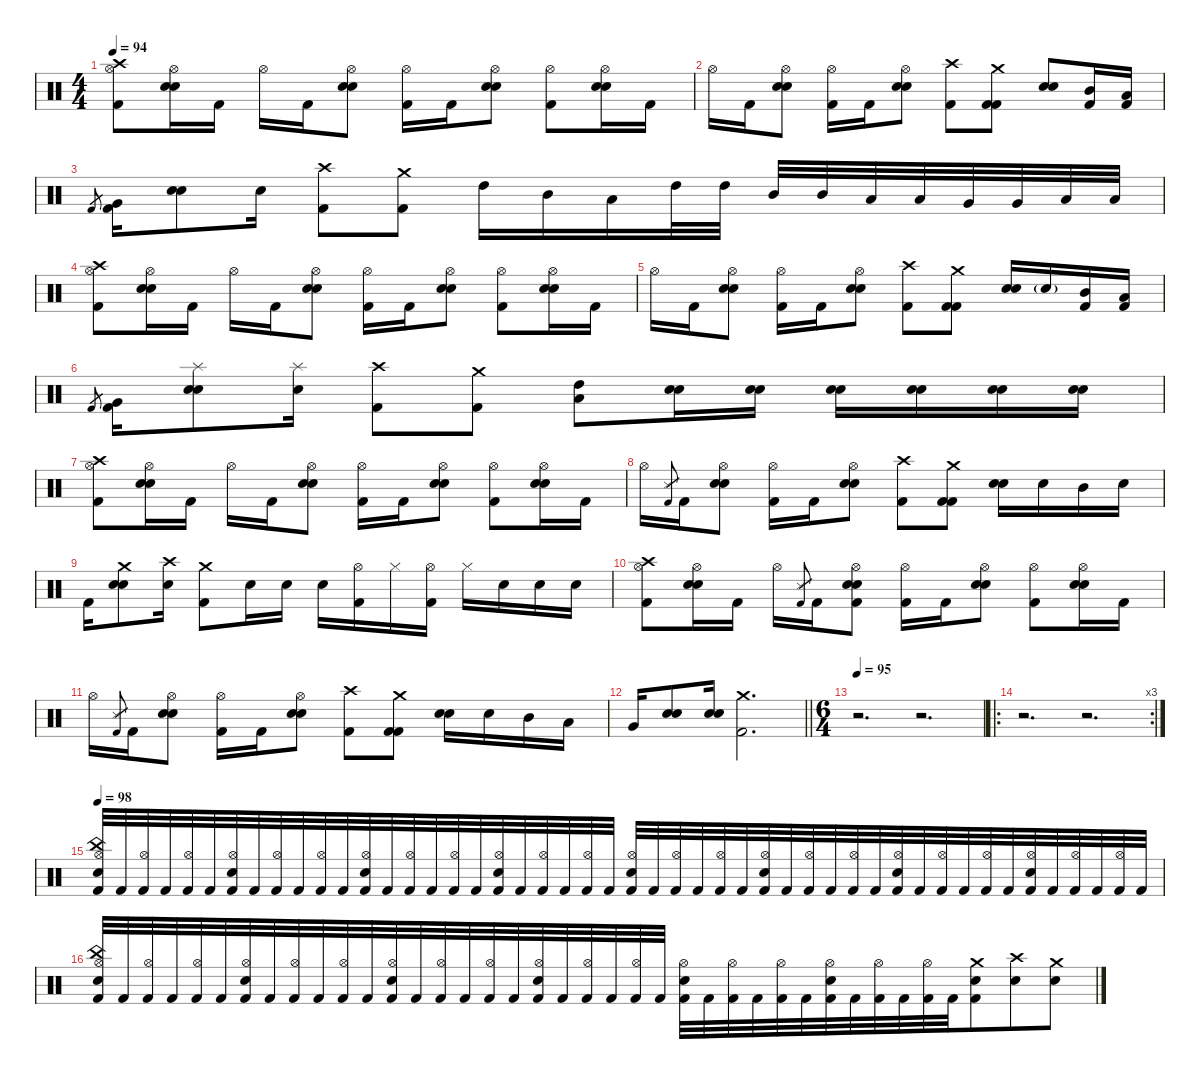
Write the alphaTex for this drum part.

\defaultSystemsLayout 4
\hideDynamics
\bracketExtendMode nobrackets
\singleTrackTrackNamePolicy hidden
\multiTrackTrackNamePolicy hidden
\firstSystemTrackNameMode fullname
\firstSystemTrackNameOrientation horizontal
\otherSystemsTrackNameOrientation horizontal
\track ("Drums" "drm.") {defaultSystemsLayout 4 instrument percussion}
\staff {score}
\articulation defaults
\ts (4 4)
\tempo 94
\clef neutral
\ks c
("Hi-Hat (open)" "Crash high (hit)" "Kick (hit) 2").8{dy ff beam Down} ("Hi-Hat (open)" "Snare (hit) 2" "Metronome (bell)").16{beam Down} "Kick (hit) 2".16{beam Down} "Hi-Hat (open)".16{beam Down} "Kick (hit) 2".16{dy f beam Down} ("Hi-Hat (open)" "Snare (hit) 2" "Metronome (bell)").8{dy ff beam Down} ("Hi-Hat (open)" "Kick (hit) 2").16{beam Down} "Kick (hit) 2".16{dy f beam Down} ("Hi-Hat (open)" "Snare (hit) 2" "Metronome (bell)").8{dy ff beam Down} ("Hi-Hat (open)" "Kick (hit) 2").8{beam Down} ("Hi-Hat (open)" "Snare (hit) 2" "Metronome (bell)").16{beam Down} "Kick (hit) 2".16{dy f beam Down} |
"Hi-Hat (open)".16{dy ff beam Down} "Kick (hit) 2".16{dy f beam Down} ("Hi-Hat (open)" "Snare (hit) 2" "Metronome (bell)").8{dy ff beam Down} ("Hi-Hat (open)" "Kick (hit) 2").16{beam Down} "Kick (hit) 2".16{dy f beam Down} ("Hi-Hat (open)" "Snare (hit) 2" "Metronome (bell)").8{dy ff beam Down} ("Crash high (hit)" "Kick (hit) 2").8{dy fff beam Down} ("Crash medium (hit)" "Kick (hit) 2" "Kick (hit) 2").8{beam Down} ("Snare (hit) 2" "Metronome (bell)").8{dy ff beam Up} ("Mid Tom (hit)" "Kick (hit) 2").16{beam Up} ("Low Tom (hit)" "Kick (hit) 2").16{beam Up} |
"Kick (hit) 2".8{gr dy mf beam Up} ("Very Low Tom (hit)" "Kick (hit) 2").16{dy f beam Down} ("Snare (hit) 2" "Metronome (bell)").8{dy ff beam Down} "Snare (hit) 2".16{beam Down} ("Crash high (hit)" "Kick (hit) 2").8{dy fff beam Down} ("Crash medium (hit)" "Kick (hit) 2").8{beam Down} "High Tom (hit)".16{dy ff beam Down} "Mid Tom (hit)".16{beam Down} "Low Tom (hit)".16{dy f beam Down} "High Tom (hit)".32{beam Down} "High Tom (hit)".32{beam Down} "Mid Tom (hit)".32{beam Up} "Mid Tom (hit)".32{beam Up} "Low Tom (hit)".32{beam Up} "Low Tom (hit)".32{beam Up} "Very Low Tom (hit)".32{beam Up} "Very Low Tom (hit)".32{beam Up} "Low Floor Tom (hit)".32{beam Up} "Low Floor Tom (hit)".32{beam Up} |
("Hi-Hat (open)" "Crash high (hit)" "Kick (hit) 2").8{dy ff beam Down} ("Hi-Hat (open)" "Snare (hit) 2" "Metronome (bell)").16{beam Down} "Kick (hit) 2".16{beam Down} "Hi-Hat (open)".16{beam Down} "Kick (hit) 2".16{dy f beam Down} ("Hi-Hat (open)" "Snare (hit) 2" "Metronome (bell)").8{dy ff beam Down} ("Hi-Hat (open)" "Kick (hit) 2").16{beam Down} "Kick (hit) 2".16{dy f beam Down} ("Hi-Hat (open)" "Snare (hit) 2" "Metronome (bell)").8{dy ff beam Down} ("Hi-Hat (open)" "Kick (hit) 2").8{beam Down} ("Hi-Hat (open)" "Snare (hit) 2" "Metronome (bell)").16{beam Down} "Kick (hit) 2".16{dy f beam Down} |
"Hi-Hat (open)".16{dy ff beam Down} "Kick (hit) 2".16{dy f beam Down} ("Hi-Hat (open)" "Snare (hit) 2" "Metronome (bell)").8{dy ff beam Down} ("Hi-Hat (open)" "Kick (hit) 2").16{beam Down} "Kick (hit) 2".16{dy f beam Down} ("Hi-Hat (open)" "Snare (hit) 2" "Metronome (bell)").8{dy ff beam Down} ("Crash high (hit)" "Kick (hit) 2").8{dy fff beam Down} ("Crash medium (hit)" "Kick (hit) 2" "Kick (hit) 2").8{beam Down} ("Snare (hit) 2" "Metronome (bell)").16{dy ff beam Up} "Snare (hit) 2"{g}.16{dy mf beam Up} ("Mid Tom (hit)" "Kick (hit) 2").16{dy ff beam Up} ("Low Tom (hit)" "Kick (hit) 2").16{beam Up} |
"Kick (hit) 2".8{gr dy f beam Up} ("Very Low Tom (hit)" "Kick (hit) 2").16{beam Down} ("Splash (hit)" "Snare (hit) 2" "Metronome (bell)").8{dy fff beam Down} ("Splash (hit)" "Snare (hit) 2").16{beam Down} ("Crash high (hit)" "Kick (hit) 2").8{beam Down} ("Crash medium (hit)" "Kick (hit) 2").8{beam Down} ("Low Tom (hit)" "High Tom (hit)").8{dy ff beam Down} ("Snare (hit) 2" "Metronome (bell)").16{dy mf beam Down} ("Snare (hit) 2" "Metronome (bell)").16{beam Down} ("Snare (hit) 2" "Metronome (bell)").16{beam Down} ("Snare (hit) 2" "Metronome (bell)").16{beam Down} ("Snare (hit) 2" "Metronome (bell)").16{beam Down} ("Snare (hit) 2" "Metronome (bell)").16{beam Down} |
("Hi-Hat (open)" "Crash high (hit)" "Kick (hit) 2").8{dy ff beam Down} ("Hi-Hat (open)" "Snare (hit) 2" "Metronome (bell)").16{beam Down} "Kick (hit) 2".16{beam Down} "Hi-Hat (open)".16{beam Down} "Kick (hit) 2".16{dy f beam Down} ("Hi-Hat (open)" "Snare (hit) 2" "Metronome (bell)").8{dy ff beam Down} ("Hi-Hat (open)" "Kick (hit) 2").16{beam Down} "Kick (hit) 2".16{dy f beam Down} ("Hi-Hat (open)" "Snare (hit) 2" "Metronome (bell)").8{dy ff beam Down} ("Hi-Hat (open)" "Kick (hit) 2").8{beam Down} ("Hi-Hat (open)" "Snare (hit) 2" "Metronome (bell)").16{beam Down} "Kick (hit) 2".16{dy f beam Down} |
"Hi-Hat (open)".16{dy ff beam Down} ("Metronome (hit)" "Kick (hit) 2").8{gr dy f beam Up} "Kick (hit) 2".16{beam Down} ("Hi-Hat (open)" "Snare (hit) 2" "Metronome (bell)").8{dy ff beam Down} ("Hi-Hat (open)" "Kick (hit) 2").16{beam Down} "Kick (hit) 2".16{dy f beam Down} ("Hi-Hat (open)" "Snare (hit) 2" "Metronome (bell)").8{dy ff beam Down} ("Crash high (hit)" "Kick (hit) 2").8{dy fff beam Down} ("Crash medium (hit)" "Kick (hit) 2" "Kick (hit) 2").8{beam Down} ("Snare (hit) 2" "Metronome (bell)").16{dy ff beam Down} "Snare (hit) 2".16{dy f beam Down} "Mid Tom (hit)".16{dy ff beam Down} "Snare (hit) 2".16{beam Down} |
"Kick (hit) 2".16{dy f beam Down} ("Crash medium (hit)" "Snare (hit) 2" "Metronome (bell)").8{dy fff beam Down} ("Crash high (hit)" "Snare (hit) 2").16{beam Down} ("Crash medium (hit)" "Kick (hit) 2").8{dy ff beam Down} "Snare (hit) 2".16{beam Down} "Snare (hit) 2".16{beam Down} "Snare (hit) 2".16{dy f beam Down} ("Hi-Hat (open)" "Kick (hit) 2").16{dy fff beam Down} "Hi-Hat (closed)".16{dy ff beam Down} ("Hi-Hat (open)" "Kick (hit) 2").16{dy fff beam Down} "Hi-Hat (closed)".16{dy ff beam Down} "Snare (hit) 2".16{beam Down} "Snare (hit) 2".16{beam Down} "Snare (hit) 2".16{beam Down} |
("Hi-Hat (open)" "Crash high (hit)" "Kick (hit) 2").8{beam Down} ("Hi-Hat (open)" "Snare (hit) 2" "Metronome (bell)").16{beam Down} "Kick (hit) 2".16{beam Down} "Hi-Hat (open)".16{beam Down} ("Metronome (hit)" "Kick (hit) 2").8{gr dy f beam Up} "Kick (hit) 2".16{beam Down} ("Hi-Hat (open)" "Snare (hit) 2" "Metronome (bell)" "Kick (hit) 2").8{dy ff beam Down} ("Hi-Hat (open)" "Kick (hit) 2").16{beam Down} "Kick (hit) 2".16{dy f beam Down} ("Hi-Hat (open)" "Snare (hit) 2" "Metronome (bell)").8{dy ff beam Down} ("Hi-Hat (open)" "Kick (hit) 2").8{beam Down} ("Hi-Hat (open)" "Snare (hit) 2" "Metronome (bell)").16{beam Down} "Kick (hit) 2".16{dy f beam Down} |
"Hi-Hat (open)".16{dy ff beam Down} ("Metronome (hit)" "Kick (hit) 2").8{gr dy f beam Up} "Kick (hit) 2".16{beam Down} ("Hi-Hat (open)" "Snare (hit) 2" "Metronome (bell)").8{dy ff beam Down} ("Hi-Hat (open)" "Kick (hit) 2").16{beam Down} "Kick (hit) 2".16{dy f beam Down} ("Hi-Hat (open)" "Snare (hit) 2" "Metronome (bell)").8{dy ff beam Down} ("Crash high (hit)" "Kick (hit) 2").8{dy fff beam Down} ("Crash medium (hit)" "Kick (hit) 2" "Kick (hit) 2").8{beam Down} ("Snare (hit) 2" "Metronome (bell)").16{dy ff beam Down} "Snare (hit) 2".16{dy f beam Down} "Mid Tom (hit)".16{dy ff beam Down} "Low Tom (hit)".16{beam Down} |
\barLineRight lightlight "Very Low Tom (hit)".16{dy f beam Up}
("Snare (hit) 2" "Metronome (bell)").8{dy ff beam Up} ("Snare (hit) 2" "Metronome (bell)").16{beam Up} ("Crash medium (hit)" "Kick (hit) 2").2{d dy fff beam Down} |
\ts (6 4)
\beaming (8 6 6)
\tempo 95
r.2{d beam Down} r.2{d beam Down} |
\ro
\rc 3
r.2{d beam Down} r.2{d beam Down} |
\tempo 98
("Hi-Hat (open)" "China (hit)" "Snare (hit) 2" "Kick (hit) 2").32{dy f beam Up} "Kick (hit) 2".32{dy ff beam Up} ("Hi-Hat (open)" "Kick (hit) 2").32{dy f beam Up} "Kick (hit) 2".32{dy ff beam Up} ("Hi-Hat (open)" "Kick (hit) 2").32{dy f beam Up} "Kick (hit) 2".32{dy ff beam Up} ("Hi-Hat (open)" "Snare (hit) 2" "Kick (hit) 2").32{dy f beam Up} "Kick (hit) 2".32{dy ff beam Up} ("Hi-Hat (open)" "Kick (hit) 2").32{dy f beam Up} "Kick (hit) 2".32{dy ff beam Up} ("Hi-Hat (open)" "Kick (hit) 2").32{dy f beam Up} "Kick (hit) 2".32{dy ff beam Up} ("Hi-Hat (open)" "Snare (hit) 2" "Kick (hit) 2").32{dy f beam Up} "Kick (hit) 2".32{dy ff beam Up} ("Hi-Hat (open)" "Kick (hit) 2").32{dy f beam Up} "Kick (hit) 2".32{dy ff beam Up} ("Hi-Hat (open)" "Kick (hit) 2").32{dy f beam Up} "Kick (hit) 2".32{dy ff beam Up} ("Hi-Hat (open)" "Snare (hit) 2" "Kick (hit) 2").32{dy f beam Up} "Kick (hit) 2".32{dy ff beam Up} ("Hi-Hat (open)" "Kick (hit) 2").32{dy f beam Up} "Kick (hit) 2".32{dy ff beam Up} ("Hi-Hat (open)" "Kick (hit) 2").32{dy f beam Up} "Kick (hit) 2".32{dy ff beam Up} ("Hi-Hat (open)" "Snare (hit) 2" "Kick (hit) 2").32{dy f beam Up} "Kick (hit) 2".32{dy ff beam Up} ("Hi-Hat (open)" "Kick (hit) 2").32{dy f beam Up} "Kick (hit) 2".32{dy ff beam Up} ("Hi-Hat (open)" "Kick (hit) 2").32{dy f beam Up} "Kick (hit) 2".32{dy ff beam Up} ("Hi-Hat (open)" "Snare (hit) 2" "Kick (hit) 2").32{dy f beam Up} "Kick (hit) 2".32{dy ff beam Up} ("Hi-Hat (open)" "Kick (hit) 2").32{dy f beam Up} "Kick (hit) 2".32{dy ff beam Up} ("Hi-Hat (open)" "Kick (hit) 2").32{dy f beam Up} "Kick (hit) 2".32{dy ff beam Up} ("Hi-Hat (open)" "Snare (hit) 2" "Kick (hit) 2").32{dy f beam Up} "Kick (hit) 2".32{dy ff beam Up} ("Hi-Hat (open)" "Kick (hit) 2").32{dy f beam Up} "Kick (hit) 2".32{dy ff beam Up} ("Hi-Hat (open)" "Kick (hit) 2").32{dy f beam Up} "Kick (hit) 2".32{dy ff beam Up} ("Hi-Hat (open)" "Snare (hit) 2" "Kick (hit) 2").32{dy f beam Up} "Kick (hit) 2".32{dy ff beam Up} ("Hi-Hat (open)" "Kick (hit) 2").32{dy f beam Up} "Kick (hit) 2".32{dy ff beam Up} ("Hi-Hat (open)" "Kick (hit) 2").32{dy f beam Up} "Kick (hit) 2".32{dy ff beam Up} |
("Hi-Hat (open)" "China (hit)" "Snare (hit) 2" "Kick (hit) 2").32{dy f beam Up} "Kick (hit) 2".32{dy ff beam Up} ("Hi-Hat (open)" "Kick (hit) 2").32{dy f beam Up} "Kick (hit) 2".32{dy ff beam Up} ("Hi-Hat (open)" "Kick (hit) 2").32{dy f beam Up} "Kick (hit) 2".32{dy ff beam Up} ("Hi-Hat (open)" "Snare (hit) 2" "Kick (hit) 2").32{dy f beam Up} "Kick (hit) 2".32{dy ff beam Up} ("Hi-Hat (open)" "Kick (hit) 2").32{dy f beam Up} "Kick (hit) 2".32{dy ff beam Up} ("Hi-Hat (open)" "Kick (hit) 2").32{dy f beam Up} "Kick (hit) 2".32{dy ff beam Up} ("Hi-Hat (open)" "Snare (hit) 2" "Kick (hit) 2").32{dy f beam Up} "Kick (hit) 2".32{dy ff beam Up} ("Hi-Hat (open)" "Kick (hit) 2").32{dy f beam Up} "Kick (hit) 2".32{dy ff beam Up} ("Hi-Hat (open)" "Kick (hit) 2").32{dy f beam Up} "Kick (hit) 2".32{dy ff beam Up} ("Hi-Hat (open)" "Snare (hit) 2" "Kick (hit) 2").32{dy f beam Up} "Kick (hit) 2".32{dy ff beam Up} ("Hi-Hat (open)" "Kick (hit) 2").32{dy f beam Up} "Kick (hit) 2".32{dy ff beam Up} ("Hi-Hat (open)" "Kick (hit) 2").32{dy f beam Up} "Kick (hit) 2".32{dy ff beam Up} ("Hi-Hat (open)" "Snare (hit) 2" "Kick (hit) 2").32{dy f beam Down} "Kick (hit) 2".32{dy ff beam Down} ("Hi-Hat (open)" "Kick (hit) 2").32{dy f beam Down} "Kick (hit) 2".32{dy ff beam Down} ("Hi-Hat (open)" "Kick (hit) 2").32{dy f beam Down} "Kick (hit) 2".32{dy ff beam Down} ("Hi-Hat (open)" "Snare (hit) 2" "Kick (hit) 2").32{dy f beam Down} "Kick (hit) 2".32{dy ff beam Down} ("Hi-Hat (open)" "Kick (hit) 2").32{dy f beam Down} "Kick (hit) 2".32{dy ff beam Down} ("Hi-Hat (open)" "Kick (hit) 2").32{dy f beam Down} "Kick (hit) 2".32{dy ff beam Down} ("Crash medium (hit)" "Snare (hit) 2" "Kick (hit) 2").8{dy fff beam Down} ("Crash high (hit)" "Snare (hit) 2").8{beam Down} ("Crash medium (hit)" "Snare (hit) 2").8{beam Down}
